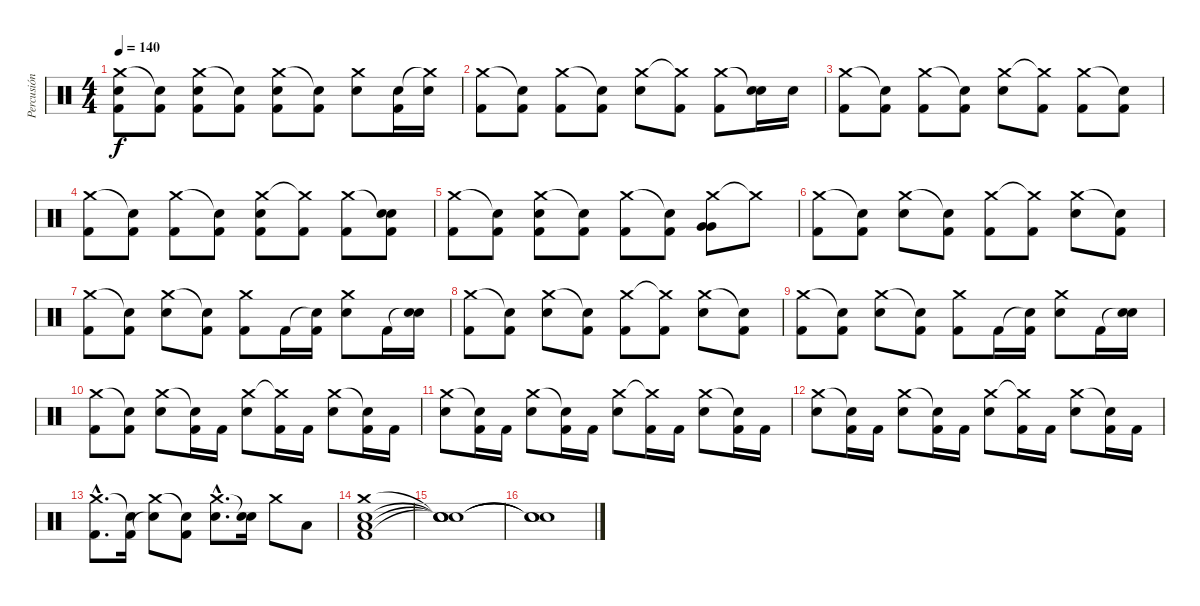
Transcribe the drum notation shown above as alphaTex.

\track ("Percusión" "Percusión") {instrument percussion}
\staff {score}
\articulation defaults
\ts (4 4)
\tempo 140
\clef neutral
\ks c
("Crash medium (hit)" "Electric Snare (hit)" "Kick (hit) 2").8{dy f} ("Snare (hit)"{t} "Kick (hit) 2").8 ("Crash medium (hit)" "Electric Snare (hit)" "Kick (hit) 2").8 ("Snare (hit)"{t} "Kick (hit) 2").8 ("Crash medium (hit)" "Electric Snare (hit)" "Kick (hit) 2").8 ("Snare (hit)"{t} "Kick (hit) 2").8 ("Crash medium (hit)" "Electric Snare (hit)").8 ("Electric Snare (hit)" "Kick (hit) 2").16 ("Crash medium (hit)"{t} "Electric Snare (hit)").16 |
("Crash medium (hit)" "Kick (hit) 2").8 ("Snare (hit)"{t} "Kick (hit) 2").8 ("Crash medium (hit)" "Kick (hit) 2").8 ("Snare (hit)"{t} "Kick (hit) 2").8 ("Crash medium (hit)" "Electric Snare (hit)").8 ("Crash medium (hit)"{t} "Kick (hit) 2").8 ("Crash medium (hit)" "Kick (hit) 2").8 ("Snare (hit)"{t} "Electric Snare (hit)").16 "Electric Snare (hit)".16 |
("Crash medium (hit)" "Kick (hit) 2").8 ("Snare (hit)"{t} "Kick (hit) 2").8 ("Crash medium (hit)" "Kick (hit) 2").8 ("Snare (hit)"{t} "Kick (hit) 2").8 ("Crash medium (hit)" "Electric Snare (hit)").8 ("Crash medium (hit)"{t} "Kick (hit) 2").8 ("Crash medium (hit)" "Kick (hit) 2").8 ("Snare (hit)"{t} "Kick (hit) 2").8 |
("Crash medium (hit)" "Kick (hit) 2").8 ("Snare (hit)"{t} "Kick (hit) 2").8 ("Crash medium (hit)" "Kick (hit) 2").8 ("Snare (hit)"{t} "Kick (hit) 2").8 ("Crash medium (hit)" "Electric Snare (hit)" "Kick (hit) 2").8 ("Crash medium (hit)"{t} "Kick (hit) 2").8 ("Crash medium (hit)" "Kick (hit) 2").8 ("Snare (hit)"{t} "Electric Snare (hit)" "Kick (hit) 2").8 |
("Crash medium (hit)" "Kick (hit) 2").8 ("Snare (hit)"{t} "Kick (hit) 2").8 ("Crash medium (hit)" "Electric Snare (hit)" "Kick (hit) 2").8 ("Snare (hit)"{t} "Kick (hit) 2").8 ("Crash medium (hit)" "Kick (hit) 2").8 ("Snare (hit)"{t} "Kick (hit) 2").8 ("Crash medium (hit)" "Very Low Tom (hit)" "Very Low Tom (hit)").8 "Crash medium (hit)"{t}.8 |
("Crash medium (hit)" "Kick (hit) 2").8 ("Snare (hit)"{t} "Kick (hit) 2").8 ("Crash medium (hit)" "Electric Snare (hit)").8 ("Snare (hit)"{t} "Kick (hit) 2").8 ("Crash medium (hit)" "Kick (hit) 2").8 ("Crash medium (hit)"{t} "Kick (hit) 2").8 ("Crash medium (hit)" "Electric Snare (hit)").8 ("Snare (hit)"{t} "Kick (hit) 2").8 |
("Crash medium (hit)" "Kick (hit) 2").8 ("Snare (hit)"{t} "Kick (hit) 2").8 ("Crash medium (hit)" "Electric Snare (hit)").8 ("Snare (hit)"{t} "Kick (hit) 2").8 ("Crash medium (hit)" "Kick (hit) 2").8 "Kick (hit) 2".16 ("Snare (hit)"{t} "Kick (hit) 2").16 ("Crash medium (hit)" "Electric Snare (hit)").8 "Kick (hit) 2".16 ("Snare (hit)"{t} "Electric Snare (hit)").16 |
("Crash medium (hit)" "Kick (hit) 2").8 ("Snare (hit)"{t} "Kick (hit) 2").8 ("Crash medium (hit)" "Electric Snare (hit)").8 ("Snare (hit)"{t} "Kick (hit) 2").8 ("Crash medium (hit)" "Kick (hit) 2").8 ("Crash medium (hit)"{t} "Kick (hit) 2").8 ("Crash medium (hit)" "Electric Snare (hit)").8 ("Snare (hit)"{t} "Kick (hit) 2").8 |
("Crash medium (hit)" "Kick (hit) 2").8 ("Snare (hit)"{t} "Kick (hit) 2").8 ("Crash medium (hit)" "Electric Snare (hit)").8 ("Snare (hit)"{t} "Kick (hit) 2").8 ("Crash medium (hit)" "Kick (hit) 2").8 "Kick (hit) 2".16 ("Snare (hit)"{t} "Kick (hit) 2").16 ("Crash medium (hit)" "Electric Snare (hit)").8 "Kick (hit) 2".16 ("Snare (hit)"{t} "Electric Snare (hit)").16 |
("Crash medium (hit)" "Kick (hit) 2").8 ("Snare (hit)"{t} "Kick (hit) 2").8 ("Crash medium (hit)" "Electric Snare (hit)").8 ("Snare (hit)"{t} "Kick (hit) 2").16 "Kick (hit) 2".16 ("Crash medium (hit)" "Electric Snare (hit)").8 ("Crash medium (hit)"{t} "Kick (hit) 2").16 "Kick (hit) 2".16 ("Crash medium (hit)" "Electric Snare (hit)").8 ("Snare (hit)"{t} "Kick (hit) 2").16 "Kick (hit) 2".16 |
("Crash medium (hit)" "Electric Snare (hit)").8 ("Snare (hit)"{t} "Kick (hit) 2").16 "Kick (hit) 2".16 ("Crash medium (hit)" "Electric Snare (hit)").8 ("Snare (hit)"{t} "Kick (hit) 2").16 "Kick (hit) 2".16 ("Crash medium (hit)" "Electric Snare (hit)").8 ("Crash medium (hit)"{t} "Kick (hit) 2").16 "Kick (hit) 2".16 ("Crash medium (hit)" "Electric Snare (hit)").8 ("Snare (hit)"{t} "Kick (hit) 2").16 "Kick (hit) 2".16 |
("Crash medium (hit)" "Electric Snare (hit)").8 ("Snare (hit)"{t} "Kick (hit) 2").16 "Kick (hit) 2".16 ("Crash medium (hit)" "Electric Snare (hit)").8 ("Snare (hit)"{t} "Kick (hit) 2").16 "Kick (hit) 2".16 ("Crash medium (hit)" "Electric Snare (hit)").8 ("Crash medium (hit)"{t} "Kick (hit) 2").16 "Kick (hit) 2".16 ("Crash medium (hit)" "Electric Snare (hit)").8 ("Snare (hit)"{t} "Kick (hit) 2").16 "Kick (hit) 2".16 |
("Crash medium (hit)"{hac} "Kick (hit) 2"{hac}).8{d} ("Snare (hit)"{t} "Kick (hit) 2").16 ("Crash medium (hit)" "Snare (hit)"{t}).8 ("Snare (hit)"{t} "Kick (hit) 2").8 ("Crash medium (hit)"{hac} "Electric Snare (hit)"{hac}).8{d} ("Snare (hit)"{t} "Electric Snare (hit)").16 "Crash medium (hit)".8 "Low Floor Tom (hit)".8 |
("Crash medium (hit)" "Electric Snare (hit)" "Low Floor Tom (hit)" "Kick (hit) 2").1 |
("Snare (hit)"{t} "Snare (hit)"{t} "Snare (hit)"{t} "Snare (hit)"{t}).1 |
("Snare (hit)"{t} "Snare (hit)"{t} "Snare (hit)"{t}).1
